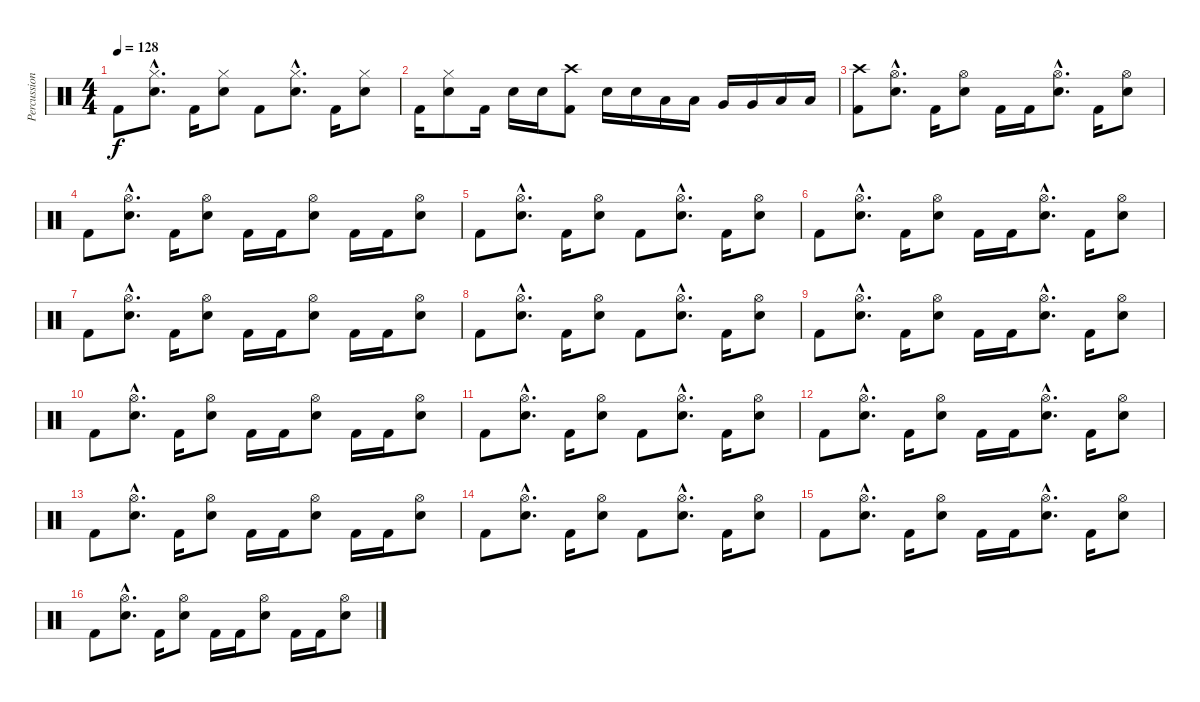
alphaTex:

\track ("Percussions" "Percussion") {instrument percussion}
\staff {score}
\articulation defaults
\ts (4 4)
\tempo 128
\clef neutral
\ks c "Kick (hit) 2".8{dy f}
("Hi-Hat (closed)"{hac} "Electric Snare (hit)"{hac}).8{d} "Kick (hit) 2".16 ("Hi-Hat (closed)" "Electric Snare (hit)").8 "Kick (hit) 2".8 ("Hi-Hat (closed)"{hac} "Electric Snare (hit)"{hac}).8{d} "Kick (hit) 2".16 ("Hi-Hat (closed)" "Electric Snare (hit)").8 |
"Kick (hit) 2".16 ("Hi-Hat (closed)" "Electric Snare (hit)").8 "Kick (hit) 2".16 "Electric Snare (hit)".16 "Electric Snare (hit)".16 ("Crash high (hit)" "Kick (hit) 2").8 "Electric Snare (hit)".16 "Electric Snare (hit)".16 "Low Tom (hit)".16 "Low Tom (hit)".16 "Very Low Tom (hit)".16 "Very Low Tom (hit)".16 "Low Floor Tom (hit)".16 "Low Floor Tom (hit)".16 |
("Crash high (hit)" "Kick (hit) 2").8 ("Hi-Hat (open)"{hac} "Electric Snare (hit)"{hac}).8{d} "Kick (hit) 2".16 ("Hi-Hat (open)" "Electric Snare (hit)").8 "Kick (hit) 2".16 "Kick (hit) 2".16 ("Hi-Hat (open)"{hac} "Electric Snare (hit)"{hac}).8{d} "Kick (hit) 2".16 ("Hi-Hat (open)" "Electric Snare (hit)").8 |
"Kick (hit) 2".8 ("Hi-Hat (open)"{hac} "Electric Snare (hit)"{hac}).8{d} "Kick (hit) 2".16 ("Hi-Hat (open)" "Electric Snare (hit)").8 "Kick (hit) 2".16 "Kick (hit) 2".16 ("Hi-Hat (open)" "Electric Snare (hit)").8 "Kick (hit) 2".16 "Kick (hit) 2".16 ("Hi-Hat (open)" "Electric Snare (hit)").8 |
"Kick (hit) 2".8 ("Hi-Hat (open)"{hac} "Electric Snare (hit)"{hac}).8{d} "Kick (hit) 2".16 ("Hi-Hat (open)" "Electric Snare (hit)").8 "Kick (hit) 2".8 ("Hi-Hat (open)"{hac} "Electric Snare (hit)"{hac}).8{d} "Kick (hit) 2".16 ("Hi-Hat (open)" "Electric Snare (hit)").8 |
"Kick (hit) 2".8 ("Hi-Hat (open)"{hac} "Electric Snare (hit)"{hac}).8{d} "Kick (hit) 2".16 ("Hi-Hat (open)" "Electric Snare (hit)").8 "Kick (hit) 2".16 "Kick (hit) 2".16 ("Hi-Hat (open)"{hac} "Electric Snare (hit)"{hac}).8{d} "Kick (hit) 2".16 ("Hi-Hat (open)" "Electric Snare (hit)").8 |
"Kick (hit) 2".8 ("Hi-Hat (open)"{hac} "Electric Snare (hit)"{hac}).8{d} "Kick (hit) 2".16 ("Hi-Hat (open)" "Electric Snare (hit)").8 "Kick (hit) 2".16 "Kick (hit) 2".16 ("Hi-Hat (open)" "Electric Snare (hit)").8 "Kick (hit) 2".16 "Kick (hit) 2".16 ("Hi-Hat (open)" "Electric Snare (hit)").8 |
"Kick (hit) 2".8 ("Hi-Hat (open)"{hac} "Electric Snare (hit)"{hac}).8{d} "Kick (hit) 2".16 ("Hi-Hat (open)" "Electric Snare (hit)").8 "Kick (hit) 2".8 ("Hi-Hat (open)"{hac} "Electric Snare (hit)"{hac}).8{d} "Kick (hit) 2".16 ("Hi-Hat (open)" "Electric Snare (hit)").8 |
"Kick (hit) 2".8 ("Hi-Hat (open)"{hac} "Electric Snare (hit)"{hac}).8{d} "Kick (hit) 2".16 ("Hi-Hat (open)" "Electric Snare (hit)").8 "Kick (hit) 2".16 "Kick (hit) 2".16 ("Hi-Hat (open)"{hac} "Electric Snare (hit)"{hac}).8{d} "Kick (hit) 2".16 ("Hi-Hat (open)" "Electric Snare (hit)").8 |
"Kick (hit) 2".8 ("Hi-Hat (open)"{hac} "Electric Snare (hit)"{hac}).8{d} "Kick (hit) 2".16 ("Hi-Hat (open)" "Electric Snare (hit)").8 "Kick (hit) 2".16 "Kick (hit) 2".16 ("Hi-Hat (open)" "Electric Snare (hit)").8 "Kick (hit) 2".16 "Kick (hit) 2".16 ("Hi-Hat (open)" "Electric Snare (hit)").8 |
"Kick (hit) 2".8 ("Hi-Hat (open)"{hac} "Electric Snare (hit)"{hac}).8{d} "Kick (hit) 2".16 ("Hi-Hat (open)" "Electric Snare (hit)").8 "Kick (hit) 2".8 ("Hi-Hat (open)"{hac} "Electric Snare (hit)"{hac}).8{d} "Kick (hit) 2".16 ("Hi-Hat (open)" "Electric Snare (hit)").8 |
"Kick (hit) 2".8 ("Hi-Hat (open)"{hac} "Electric Snare (hit)"{hac}).8{d} "Kick (hit) 2".16 ("Hi-Hat (open)" "Electric Snare (hit)").8 "Kick (hit) 2".16 "Kick (hit) 2".16 ("Hi-Hat (open)"{hac} "Electric Snare (hit)"{hac}).8{d} "Kick (hit) 2".16 ("Hi-Hat (open)" "Electric Snare (hit)").8 |
"Kick (hit) 2".8 ("Hi-Hat (open)"{hac} "Electric Snare (hit)"{hac}).8{d} "Kick (hit) 2".16 ("Hi-Hat (open)" "Electric Snare (hit)").8 "Kick (hit) 2".16 "Kick (hit) 2".16 ("Hi-Hat (open)" "Electric Snare (hit)").8 "Kick (hit) 2".16 "Kick (hit) 2".16 ("Hi-Hat (open)" "Electric Snare (hit)").8 |
"Kick (hit) 2".8 ("Hi-Hat (open)"{hac} "Electric Snare (hit)"{hac}).8{d} "Kick (hit) 2".16 ("Hi-Hat (open)" "Electric Snare (hit)").8 "Kick (hit) 2".8 ("Hi-Hat (open)"{hac} "Electric Snare (hit)"{hac}).8{d} "Kick (hit) 2".16 ("Hi-Hat (open)" "Electric Snare (hit)").8 |
"Kick (hit) 2".8 ("Hi-Hat (open)"{hac} "Electric Snare (hit)"{hac}).8{d} "Kick (hit) 2".16 ("Hi-Hat (open)" "Electric Snare (hit)").8 "Kick (hit) 2".16 "Kick (hit) 2".16 ("Hi-Hat (open)"{hac} "Electric Snare (hit)"{hac}).8{d} "Kick (hit) 2".16 ("Hi-Hat (open)" "Electric Snare (hit)").8 |
"Kick (hit) 2".8 ("Hi-Hat (open)"{hac} "Electric Snare (hit)"{hac}).8{d} "Kick (hit) 2".16 ("Hi-Hat (open)" "Electric Snare (hit)").8 "Kick (hit) 2".16 "Kick (hit) 2".16 ("Hi-Hat (open)" "Electric Snare (hit)").8 "Kick (hit) 2".16 "Kick (hit) 2".16 ("Hi-Hat (open)" "Electric Snare (hit)").8
